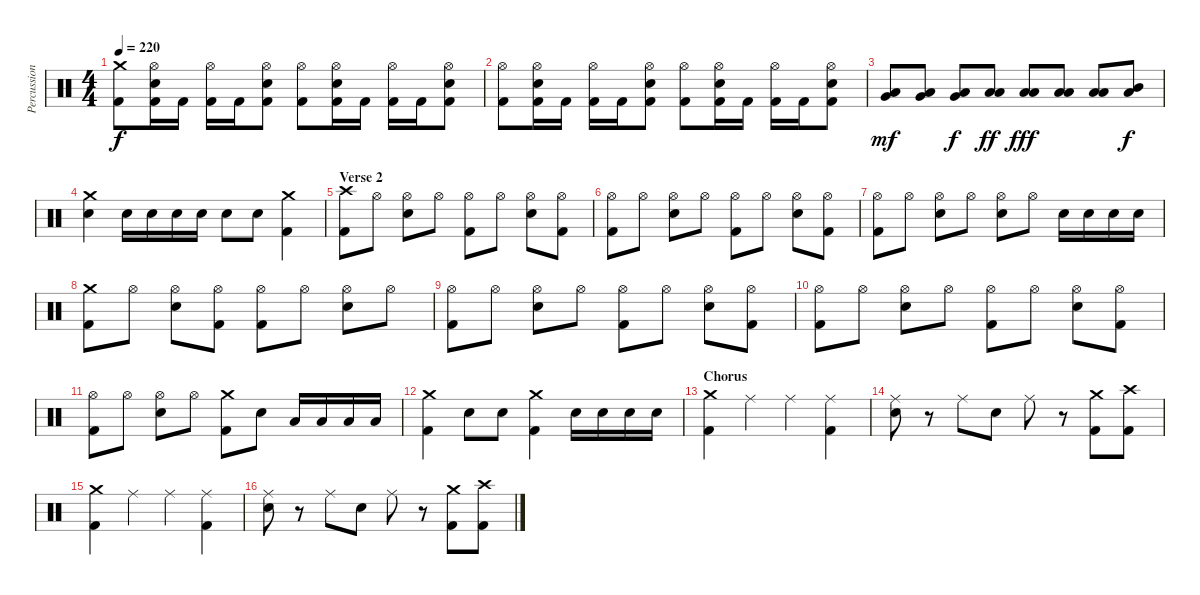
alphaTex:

\track ("Percussion" "Percussion") {instrument percussion}
\staff {score}
\articulation defaults
\ts (4 4)
\tempo 220
\clef neutral
\ks c
("Crash medium (hit)" "Kick (hit) 2").8{dy f} ("Hi-Hat (open)" "Snare (hit) 2" "Kick (hit) 2").16 "Kick (hit) 2".16 ("Hi-Hat (open)" "Kick (hit) 2").16 "Kick (hit) 2".16 ("Hi-Hat (open)" "Snare (hit) 2" "Kick (hit) 2").8 ("Hi-Hat (open)" "Kick (hit) 2").8 ("Hi-Hat (open)" "Snare (hit) 2" "Kick (hit) 2").16 "Kick (hit) 2".16 ("Hi-Hat (open)" "Kick (hit) 2").16 "Kick (hit) 2".16 ("Hi-Hat (open)" "Snare (hit) 2" "Kick (hit) 2").8 |
("Hi-Hat (open)" "Kick (hit) 2").8 ("Hi-Hat (open)" "Snare (hit) 2" "Kick (hit) 2").16 "Kick (hit) 2".16 ("Hi-Hat (open)" "Kick (hit) 2").16 "Kick (hit) 2".16 ("Hi-Hat (open)" "Snare (hit) 2" "Kick (hit) 2").8 ("Hi-Hat (open)" "Kick (hit) 2").8 ("Hi-Hat (open)" "Snare (hit) 2" "Kick (hit) 2").16 "Kick (hit) 2".16 ("Hi-Hat (open)" "Kick (hit) 2").16 "Kick (hit) 2".16 ("Hi-Hat (open)" "Snare (hit) 2" "Kick (hit) 2").8 |
("Very Low Tom (hit)" "Low Tom (hit)").8{dy mf} ("Very Low Tom (hit)" "Low Tom (hit)").8 ("Very Low Tom (hit)" "Low Tom (hit)").8{dy f} ("Low Tom (hit)" "Low Tom (hit)").8{dy ff} ("Low Tom (hit)" "Low Tom (hit)").8{dy fff} ("Low Tom (hit)" "Low Tom (hit)").8 ("Low Tom (hit)" "Low Tom (hit)").8 ("Mid Tom (hit)" "Low Tom (hit)").8{dy f} |
("Crash medium (hit)" "Snare (hit) 2").4 "Snare (hit) 2".16 "Snare (hit) 2".16 "Snare (hit) 2".16 "Snare (hit) 2".16 "Snare (hit) 2".8 "Snare (hit) 2".8 ("Crash medium (hit)" "Kick (hit) 2").4 |
\section ("" "Verse 2")
("Kick (hit) 2" "Crash high (hit)").8 "Hi-Hat (open)".8 ("Snare (hit) 2" "Hi-Hat (open)").8 "Hi-Hat (open)".8 ("Kick (hit) 2" "Hi-Hat (open)").8 "Hi-Hat (open)".8 ("Snare (hit) 2" "Hi-Hat (open)").8 ("Kick (hit) 2" "Hi-Hat (open)").8 |
("Kick (hit) 2" "Hi-Hat (open)").8 "Hi-Hat (open)".8 ("Snare (hit) 2" "Hi-Hat (open)").8 "Hi-Hat (open)".8 ("Kick (hit) 2" "Hi-Hat (open)").8 "Hi-Hat (open)".8 ("Snare (hit) 2" "Hi-Hat (open)").8 ("Kick (hit) 2" "Hi-Hat (open)").8 |
("Kick (hit) 2" "Hi-Hat (open)").8 "Hi-Hat (open)".8 ("Snare (hit) 2" "Hi-Hat (open)").8 "Hi-Hat (open)".8 ("Snare (hit) 2" "Hi-Hat (open)").8 "Hi-Hat (open)".8 "Snare (hit) 2".16 "Snare (hit) 2".16 "Snare (hit) 2".16 "Snare (hit) 2".16 |
("Crash medium (hit)" "Kick (hit) 2").8 "Hi-Hat (open)".8 ("Snare (hit) 2" "Hi-Hat (open)").8 ("Kick (hit) 2" "Hi-Hat (open)").8 ("Kick (hit) 2" "Hi-Hat (open)").8 "Hi-Hat (open)".8 ("Snare (hit) 2" "Hi-Hat (open)").8 "Hi-Hat (open)".8 |
("Kick (hit) 2" "Hi-Hat (open)").8 "Hi-Hat (open)".8 ("Snare (hit) 2" "Hi-Hat (open)").8 "Hi-Hat (open)".8 ("Kick (hit) 2" "Hi-Hat (open)").8 "Hi-Hat (open)".8 ("Snare (hit) 2" "Hi-Hat (open)").8 ("Kick (hit) 2" "Hi-Hat (open)").8 |
("Kick (hit) 2" "Hi-Hat (open)").8 "Hi-Hat (open)".8 ("Snare (hit) 2" "Hi-Hat (open)").8 "Hi-Hat (open)".8 ("Kick (hit) 2" "Hi-Hat (open)").8 "Hi-Hat (open)".8 ("Snare (hit) 2" "Hi-Hat (open)").8 ("Kick (hit) 2" "Hi-Hat (open)").8 |
("Kick (hit) 2" "Hi-Hat (open)").8 "Hi-Hat (open)".8 ("Snare (hit) 2" "Hi-Hat (open)").8 "Hi-Hat (open)".8 ("Kick (hit) 2" "Crash medium (hit)").8 "Snare (hit) 2".8 "Low Tom (hit)".16 "Low Tom (hit)".16 "Low Tom (hit)".16 "Low Tom (hit)".16 |
("Crash medium (hit)" "Kick (hit) 2").4 "Snare (hit) 2".8 "Snare (hit) 2".8 ("Crash medium (hit)" "Kick (hit) 2").4 "Snare (hit) 2".16 "Snare (hit) 2".16 "Snare (hit) 2".16 "Snare (hit) 2".16 |
\section ("" "Chorus")
("Kick (hit) 2" "Crash medium (hit)").4 "Ride (middle)".4 "Ride (middle)".4 ("Kick (hit) 2" "Ride (middle)").4 |
("Snare (hit) 2" "Ride (middle)").8 r.8 "Ride (middle)".8 "Snare (hit) 2".8 "Ride (middle)".8 r.8 ("Crash medium (hit)" "Kick (hit) 2").8 ("Crash high (hit)" "Kick (hit) 2").8 |
("Kick (hit) 2" "Crash medium (hit)").4 "Ride (middle)".4 "Ride (middle)".4 ("Kick (hit) 2" "Ride (middle)").4 |
("Snare (hit) 2" "Ride (middle)").8 r.8 "Ride (middle)".8 "Snare (hit) 2".8 "Ride (middle)".8 r.8 ("Crash medium (hit)" "Kick (hit) 2").8 ("Crash high (hit)" "Kick (hit) 2").8
